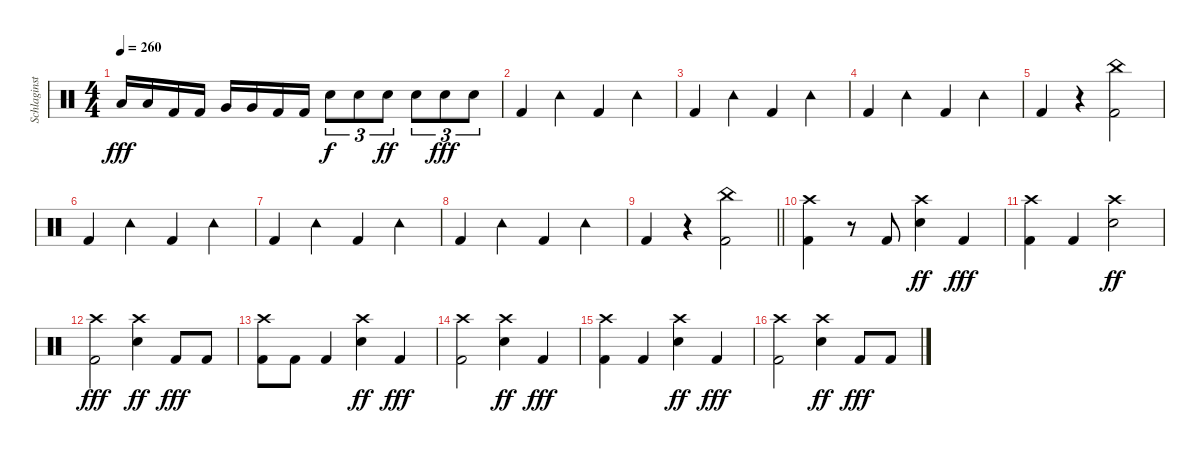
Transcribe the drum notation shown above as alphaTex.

\track ("Schlaginstrumente - Auswahl" "Schlaginst") {instrument percussion}
\staff {score}
\articulation defaults
\ts (4 4)
\tempo 260
\clef neutral
\ks c "Low Tom (hit)".16{dy fff} "Low Tom (hit)".16 "Kick (hit) 2".16 "Kick (hit) 2".16 "Very Low Tom (hit)".16 "Very Low Tom (hit)".16 "Kick (hit) 2".16 "Kick (hit) 2".16 "Snare (hit) 2".8{tu (3 2) dy f} "Snare (hit) 2".8{tu (3 2)} "Snare (hit) 2".8{tu (3 2) dy ff} "Snare (hit) 2".8{tu (3 2)} "Snare (hit) 2".8{tu (3 2) dy fff} "Snare (hit) 2".8{tu (3 2)}
|
"Kick (hit) 2".4 "Tambourine (hit)".4 "Kick (hit) 2".4 "Tambourine (hit)".4 |
"Kick (hit) 2".4 "Tambourine (hit)".4 "Kick (hit) 2".4 "Tambourine (hit)".4 |
"Kick (hit) 2".4 "Tambourine (hit)".4 "Kick (hit) 2".4 "Tambourine (hit)".4 |
"Kick (hit) 2".4 r.4 ("China (hit)" "Kick (hit) 2").2 |
"Kick (hit) 2".4 "Tambourine (hit)".4 "Kick (hit) 2".4 "Tambourine (hit)".4 |
"Kick (hit) 2".4 "Tambourine (hit)".4 "Kick (hit) 2".4 "Tambourine (hit)".4 |
"Kick (hit) 2".4 "Tambourine (hit)".4 "Kick (hit) 2".4 "Tambourine (hit)".4 |
\barLineRight lightlight "Kick (hit) 2".4
r.4 ("China (hit)" "Kick (hit) 2").2 |
("Crash high (hit)" "Kick (hit) 2").4 r.8 "Kick (hit) 2".8 ("Crash high (hit)" "Snare (hit) 2").4{dy ff} "Kick (hit) 2".4{dy fff} |
("Crash high (hit)" "Kick (hit) 2").4 "Kick (hit) 2".4 ("Crash high (hit)" "Snare (hit) 2").2{dy ff} |
("Crash high (hit)" "Kick (hit) 2").2{dy fff} ("Crash high (hit)" "Snare (hit) 2").4{dy ff} "Kick (hit) 2".8{dy fff} "Kick (hit) 2".8 |
("Crash high (hit)" "Kick (hit) 2").8 "Kick (hit) 2".8 "Kick (hit) 2".4 ("Crash high (hit)" "Snare (hit) 2").4{dy ff} "Kick (hit) 2".4{dy fff} |
("Crash high (hit)" "Kick (hit) 2").2 ("Crash high (hit)" "Snare (hit) 2").4{dy ff} "Kick (hit) 2".4{dy fff} |
("Crash high (hit)" "Kick (hit) 2").4 "Kick (hit) 2".4 ("Crash high (hit)" "Snare (hit) 2").4{dy ff} "Kick (hit) 2".4{dy fff} |
("Crash high (hit)" "Kick (hit) 2").2 ("Crash high (hit)" "Snare (hit) 2").4{dy ff} "Kick (hit) 2".8{dy fff} "Kick (hit) 2".8
